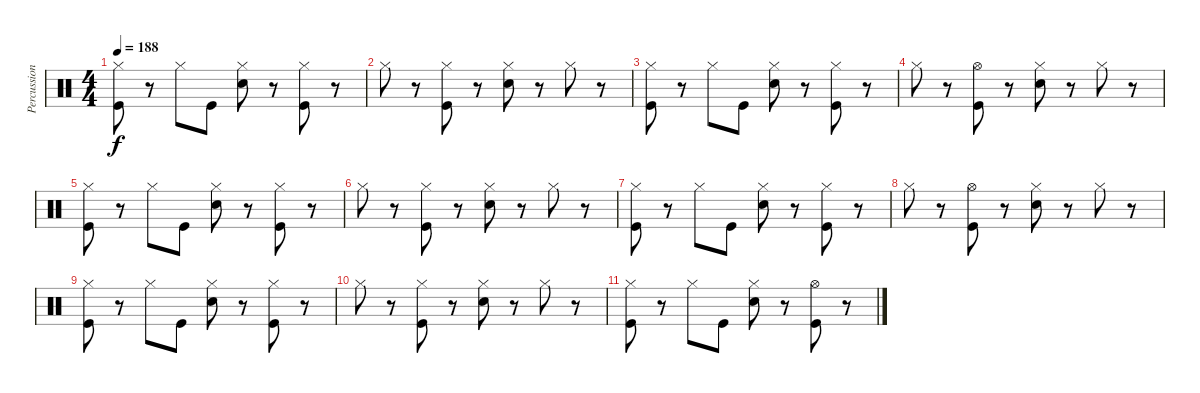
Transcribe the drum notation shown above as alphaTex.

\track ("Percussioni" "Percussion") {instrument percussion}
\staff {score}
\articulation defaults
\ts (4 4)
\tempo 188
\clef neutral
\ks c
("Hi-Hat (closed)" "Kick (hit)").8{dy f} r.8 "Hi-Hat (closed)".8 "Kick (hit)".8 ("Hi-Hat (closed)" "Snare (hit) 2").8 r.8 ("Hi-Hat (closed)" "Kick (hit)").8 r.8 |
"Hi-Hat (closed)".8 r.8 ("Hi-Hat (closed)" "Kick (hit)").8 r.8 ("Hi-Hat (closed)" "Snare (hit) 2").8 r.8 "Hi-Hat (closed)".8 r.8 |
("Hi-Hat (closed)" "Kick (hit)").8 r.8 "Hi-Hat (closed)".8 "Kick (hit)".8 ("Hi-Hat (closed)" "Snare (hit) 2").8 r.8 ("Hi-Hat (closed)" "Kick (hit)").8 r.8 |
"Hi-Hat (closed)".8 r.8 ("Hi-Hat (open)" "Kick (hit)").8 r.8 ("Hi-Hat (closed)" "Snare (hit) 2").8 r.8 "Hi-Hat (closed)".8 r.8 |
("Hi-Hat (closed)" "Kick (hit)").8 r.8 "Hi-Hat (closed)".8 "Kick (hit)".8 ("Hi-Hat (closed)" "Snare (hit) 2").8 r.8 ("Hi-Hat (closed)" "Kick (hit)").8 r.8 |
"Hi-Hat (closed)".8 r.8 ("Hi-Hat (closed)" "Kick (hit)").8 r.8 ("Hi-Hat (closed)" "Snare (hit) 2").8 r.8 "Hi-Hat (closed)".8 r.8 |
("Hi-Hat (closed)" "Kick (hit)").8 r.8 "Hi-Hat (closed)".8 "Kick (hit)".8 ("Hi-Hat (closed)" "Snare (hit) 2").8 r.8 ("Hi-Hat (closed)" "Kick (hit)").8 r.8 |
"Hi-Hat (closed)".8 r.8 ("Hi-Hat (open)" "Kick (hit)").8 r.8 ("Hi-Hat (closed)" "Snare (hit) 2").8 r.8 "Hi-Hat (closed)".8 r.8 |
("Hi-Hat (closed)" "Kick (hit)").8 r.8 "Hi-Hat (closed)".8 "Kick (hit)".8 ("Hi-Hat (closed)" "Snare (hit) 2").8 r.8 ("Hi-Hat (closed)" "Kick (hit)").8 r.8 |
"Hi-Hat (closed)".8 r.8 ("Hi-Hat (closed)" "Kick (hit)").8 r.8 ("Hi-Hat (closed)" "Snare (hit) 2").8 r.8 "Hi-Hat (closed)".8 r.8 |
("Hi-Hat (closed)" "Kick (hit)").8 r.8 "Hi-Hat (closed)".8 "Kick (hit)".8 ("Hi-Hat (closed)" "Snare (hit) 2").8 r.8 ("Hi-Hat (open)" "Kick (hit)").8 r.8
